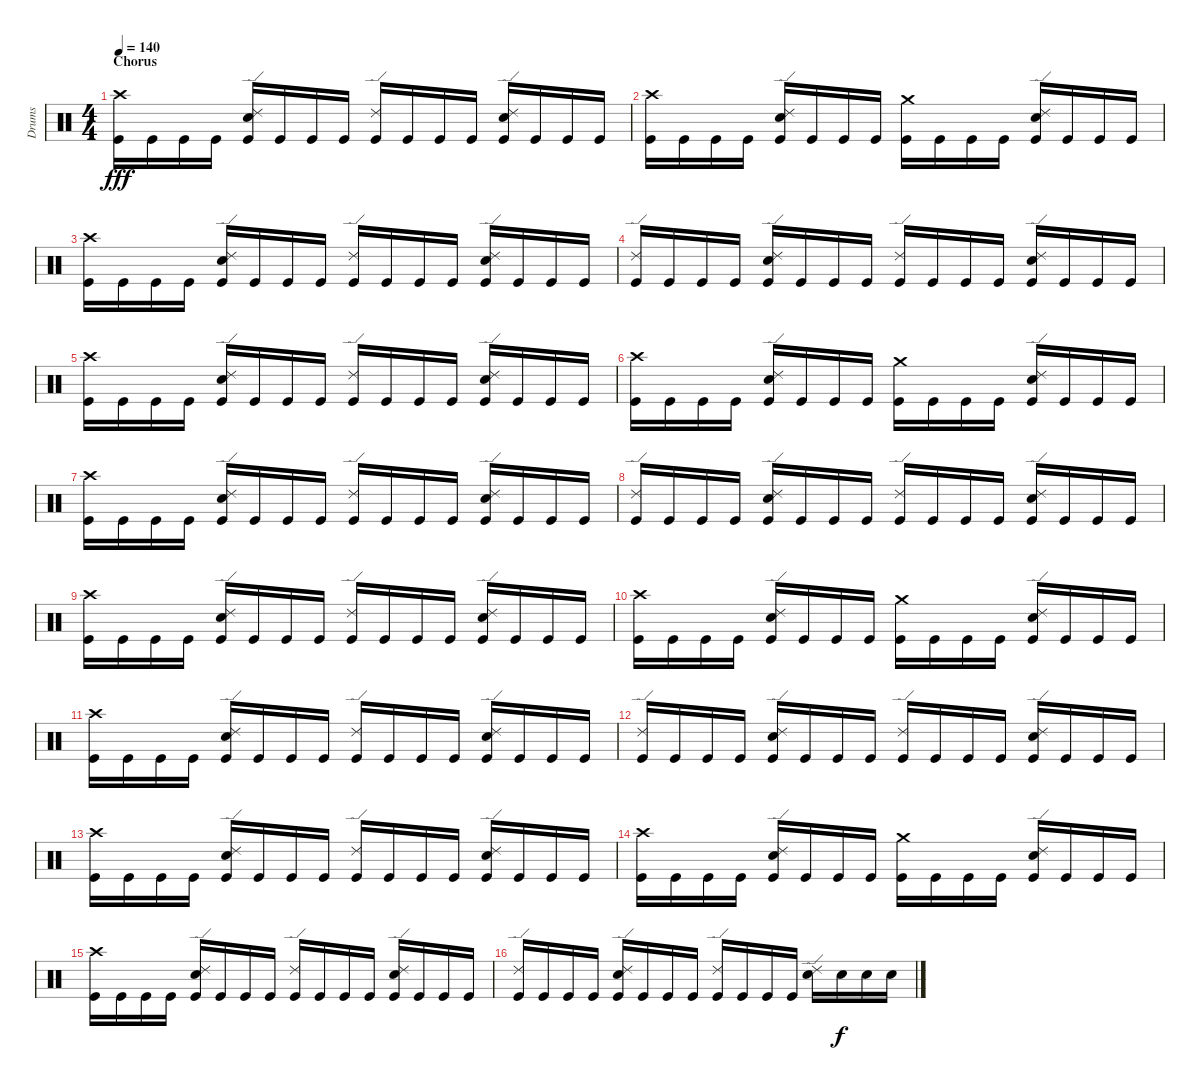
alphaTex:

\track ("Drums" "Drums") {instrument percussion}
\staff {score}
\articulation defaults
\ts (4 4)
\section ("" "Chorus")
\tempo 140
\clef neutral
\ks c
("Crash high (hit)" "Kick (hit)").16{dy fff} "Kick (hit)".16 "Kick (hit)".16 "Kick (hit)".16 ("Ride (edge) 2" "Snare (hit) 2" "Kick (hit)").16 "Kick (hit)".16 "Kick (hit)".16 "Kick (hit)".16 ("Ride (edge) 2" "Kick (hit)").16 "Kick (hit)".16 "Kick (hit)".16 "Kick (hit)".16 ("Ride (edge) 2" "Snare (hit) 2" "Kick (hit)").16 "Kick (hit)".16 "Kick (hit)".16 "Kick (hit)".16 |
("Crash high (hit)" "Kick (hit)").16 "Kick (hit)".16 "Kick (hit)".16 "Kick (hit)".16 ("Ride (edge) 2" "Snare (hit) 2" "Kick (hit)").16 "Kick (hit)".16 "Kick (hit)".16 "Kick (hit)".16 ("Crash medium (hit)" "Kick (hit)").16 "Kick (hit)".16 "Kick (hit)".16 "Kick (hit)".16 ("Ride (edge) 2" "Snare (hit) 2" "Kick (hit)").16 "Kick (hit)".16 "Kick (hit)".16 "Kick (hit)".16 |
("Crash high (hit)" "Kick (hit)").16 "Kick (hit)".16 "Kick (hit)".16 "Kick (hit)".16 ("Ride (edge) 2" "Snare (hit) 2" "Kick (hit)").16 "Kick (hit)".16 "Kick (hit)".16 "Kick (hit)".16 ("Ride (edge) 2" "Kick (hit)").16 "Kick (hit)".16 "Kick (hit)".16 "Kick (hit)".16 ("Ride (edge) 2" "Snare (hit) 2" "Kick (hit)").16 "Kick (hit)".16 "Kick (hit)".16 "Kick (hit)".16 |
("Ride (edge) 2" "Kick (hit)").16 "Kick (hit)".16 "Kick (hit)".16 "Kick (hit)".16 ("Ride (edge) 2" "Snare (hit) 2" "Kick (hit)").16 "Kick (hit)".16 "Kick (hit)".16 "Kick (hit)".16 ("Ride (edge) 2" "Kick (hit)").16 "Kick (hit)".16 "Kick (hit)".16 "Kick (hit)".16 ("Ride (edge) 2" "Snare (hit) 2" "Kick (hit)").16 "Kick (hit)".16 "Kick (hit)".16 "Kick (hit)".16 |
("Crash high (hit)" "Kick (hit)").16 "Kick (hit)".16 "Kick (hit)".16 "Kick (hit)".16 ("Ride (edge) 2" "Snare (hit) 2" "Kick (hit)").16 "Kick (hit)".16 "Kick (hit)".16 "Kick (hit)".16 ("Ride (edge) 2" "Kick (hit)").16 "Kick (hit)".16 "Kick (hit)".16 "Kick (hit)".16 ("Ride (edge) 2" "Snare (hit) 2" "Kick (hit)").16 "Kick (hit)".16 "Kick (hit)".16 "Kick (hit)".16 |
("Crash high (hit)" "Kick (hit)").16 "Kick (hit)".16 "Kick (hit)".16 "Kick (hit)".16 ("Ride (edge) 2" "Snare (hit) 2" "Kick (hit)").16 "Kick (hit)".16 "Kick (hit)".16 "Kick (hit)".16 ("Crash medium (hit)" "Kick (hit)").16 "Kick (hit)".16 "Kick (hit)".16 "Kick (hit)".16 ("Ride (edge) 2" "Snare (hit) 2" "Kick (hit)").16 "Kick (hit)".16 "Kick (hit)".16 "Kick (hit)".16 |
("Crash high (hit)" "Kick (hit)").16 "Kick (hit)".16 "Kick (hit)".16 "Kick (hit)".16 ("Ride (edge) 2" "Snare (hit) 2" "Kick (hit)").16 "Kick (hit)".16 "Kick (hit)".16 "Kick (hit)".16 ("Ride (edge) 2" "Kick (hit)").16 "Kick (hit)".16 "Kick (hit)".16 "Kick (hit)".16 ("Ride (edge) 2" "Snare (hit) 2" "Kick (hit)").16 "Kick (hit)".16 "Kick (hit)".16 "Kick (hit)".16 |
("Ride (edge) 2" "Kick (hit)").16 "Kick (hit)".16 "Kick (hit)".16 "Kick (hit)".16 ("Ride (edge) 2" "Snare (hit) 2" "Kick (hit)").16 "Kick (hit)".16 "Kick (hit)".16 "Kick (hit)".16 ("Ride (edge) 2" "Kick (hit)").16 "Kick (hit)".16 "Kick (hit)".16 "Kick (hit)".16 ("Ride (edge) 2" "Snare (hit) 2" "Kick (hit)").16 "Kick (hit)".16 "Kick (hit)".16 "Kick (hit)".16 |
("Crash high (hit)" "Kick (hit)").16 "Kick (hit)".16 "Kick (hit)".16 "Kick (hit)".16 ("Ride (edge) 2" "Snare (hit) 2" "Kick (hit)").16 "Kick (hit)".16 "Kick (hit)".16 "Kick (hit)".16 ("Ride (edge) 2" "Kick (hit)").16 "Kick (hit)".16 "Kick (hit)".16 "Kick (hit)".16 ("Ride (edge) 2" "Snare (hit) 2" "Kick (hit)").16 "Kick (hit)".16 "Kick (hit)".16 "Kick (hit)".16 |
("Crash high (hit)" "Kick (hit)").16 "Kick (hit)".16 "Kick (hit)".16 "Kick (hit)".16 ("Ride (edge) 2" "Snare (hit) 2" "Kick (hit)").16 "Kick (hit)".16 "Kick (hit)".16 "Kick (hit)".16 ("Crash medium (hit)" "Kick (hit)").16 "Kick (hit)".16 "Kick (hit)".16 "Kick (hit)".16 ("Ride (edge) 2" "Snare (hit) 2" "Kick (hit)").16 "Kick (hit)".16 "Kick (hit)".16 "Kick (hit)".16 |
("Crash high (hit)" "Kick (hit)").16 "Kick (hit)".16 "Kick (hit)".16 "Kick (hit)".16 ("Ride (edge) 2" "Snare (hit) 2" "Kick (hit)").16 "Kick (hit)".16 "Kick (hit)".16 "Kick (hit)".16 ("Ride (edge) 2" "Kick (hit)").16 "Kick (hit)".16 "Kick (hit)".16 "Kick (hit)".16 ("Ride (edge) 2" "Snare (hit) 2" "Kick (hit)").16 "Kick (hit)".16 "Kick (hit)".16 "Kick (hit)".16 |
("Ride (edge) 2" "Kick (hit)").16 "Kick (hit)".16 "Kick (hit)".16 "Kick (hit)".16 ("Ride (edge) 2" "Snare (hit) 2" "Kick (hit)").16 "Kick (hit)".16 "Kick (hit)".16 "Kick (hit)".16 ("Ride (edge) 2" "Kick (hit)").16 "Kick (hit)".16 "Kick (hit)".16 "Kick (hit)".16 ("Ride (edge) 2" "Snare (hit) 2" "Kick (hit)").16 "Kick (hit)".16 "Kick (hit)".16 "Kick (hit)".16 |
("Crash high (hit)" "Kick (hit)").16 "Kick (hit)".16 "Kick (hit)".16 "Kick (hit)".16 ("Ride (edge) 2" "Snare (hit) 2" "Kick (hit)").16 "Kick (hit)".16 "Kick (hit)".16 "Kick (hit)".16 ("Ride (edge) 2" "Kick (hit)").16 "Kick (hit)".16 "Kick (hit)".16 "Kick (hit)".16 ("Ride (edge) 2" "Snare (hit) 2" "Kick (hit)").16 "Kick (hit)".16 "Kick (hit)".16 "Kick (hit)".16 |
("Crash high (hit)" "Kick (hit)").16 "Kick (hit)".16 "Kick (hit)".16 "Kick (hit)".16 ("Ride (edge) 2" "Snare (hit) 2" "Kick (hit)").16 "Kick (hit)".16 "Kick (hit)".16 "Kick (hit)".16 ("Crash medium (hit)" "Kick (hit)").16 "Kick (hit)".16 "Kick (hit)".16 "Kick (hit)".16 ("Ride (edge) 2" "Snare (hit) 2" "Kick (hit)").16 "Kick (hit)".16 "Kick (hit)".16 "Kick (hit)".16 |
("Crash high (hit)" "Kick (hit)").16 "Kick (hit)".16 "Kick (hit)".16 "Kick (hit)".16 ("Ride (edge) 2" "Snare (hit) 2" "Kick (hit)").16 "Kick (hit)".16 "Kick (hit)".16 "Kick (hit)".16 ("Ride (edge) 2" "Kick (hit)").16 "Kick (hit)".16 "Kick (hit)".16 "Kick (hit)".16 ("Ride (edge) 2" "Snare (hit) 2" "Kick (hit)").16 "Kick (hit)".16 "Kick (hit)".16 "Kick (hit)".16 |
("Ride (edge) 2" "Kick (hit)").16 "Kick (hit)".16 "Kick (hit)".16 "Kick (hit)".16 ("Ride (edge) 2" "Snare (hit) 2" "Kick (hit)").16 "Kick (hit)".16 "Kick (hit)".16 "Kick (hit)".16 ("Ride (edge) 2" "Kick (hit)").16 "Kick (hit)".16 "Kick (hit)".16 "Kick (hit)".16 ("Ride (edge) 2" "Snare (hit) 2").16 "Snare (hit) 2".16{dy f} "Snare (hit) 2".16 "Snare (hit) 2".16
